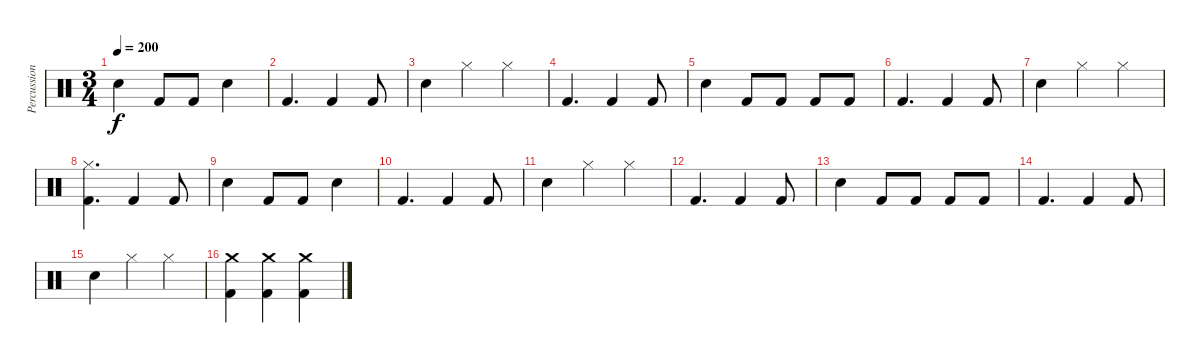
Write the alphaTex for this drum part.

\track ("Percussion" "Percussion") {instrument percussion}
\staff {score}
\articulation defaults
\ts (3 4)
\tempo 200
\clef neutral
\ks c "Snare (hit) 2".4{dy f} "Kick (hit) 2".8 "Kick (hit) 2".8 "Snare (hit) 2".4
|
"Kick (hit) 2".4{d} "Kick (hit) 2".4 "Kick (hit) 2".8 |
"Snare (hit) 2".4 "Hi-Hat (closed)".4 "Hi-Hat (closed)".4 |
"Kick (hit) 2".4{d} "Kick (hit) 2".4 "Kick (hit) 2".8 |
"Snare (hit) 2".4 "Kick (hit) 2".8 "Kick (hit) 2".8 "Kick (hit) 2".8 "Kick (hit) 2".8 |
"Kick (hit) 2".4{d} "Kick (hit) 2".4 "Kick (hit) 2".8 |
"Snare (hit) 2".4 "Hi-Hat (closed)".4 "Hi-Hat (closed)".4 |
("Hi-Hat (closed)" "Kick (hit) 2").4{d} "Kick (hit) 2".4 "Kick (hit) 2".8 |
"Snare (hit) 2".4 "Kick (hit) 2".8 "Kick (hit) 2".8 "Snare (hit) 2".4 |
"Kick (hit) 2".4{d} "Kick (hit) 2".4 "Kick (hit) 2".8 |
"Snare (hit) 2".4 "Hi-Hat (closed)".4 "Hi-Hat (closed)".4 |
"Kick (hit) 2".4{d} "Kick (hit) 2".4 "Kick (hit) 2".8 |
"Snare (hit) 2".4 "Kick (hit) 2".8 "Kick (hit) 2".8 "Kick (hit) 2".8 "Kick (hit) 2".8 |
"Kick (hit) 2".4{d} "Kick (hit) 2".4 "Kick (hit) 2".8 |
"Snare (hit) 2".4 "Hi-Hat (closed)".4 "Hi-Hat (closed)".4 |
("Crash medium (hit)" "Kick (hit) 2").4 ("Crash medium (hit)" "Kick (hit) 2").4 ("Crash medium (hit)" "Kick (hit) 2").4
